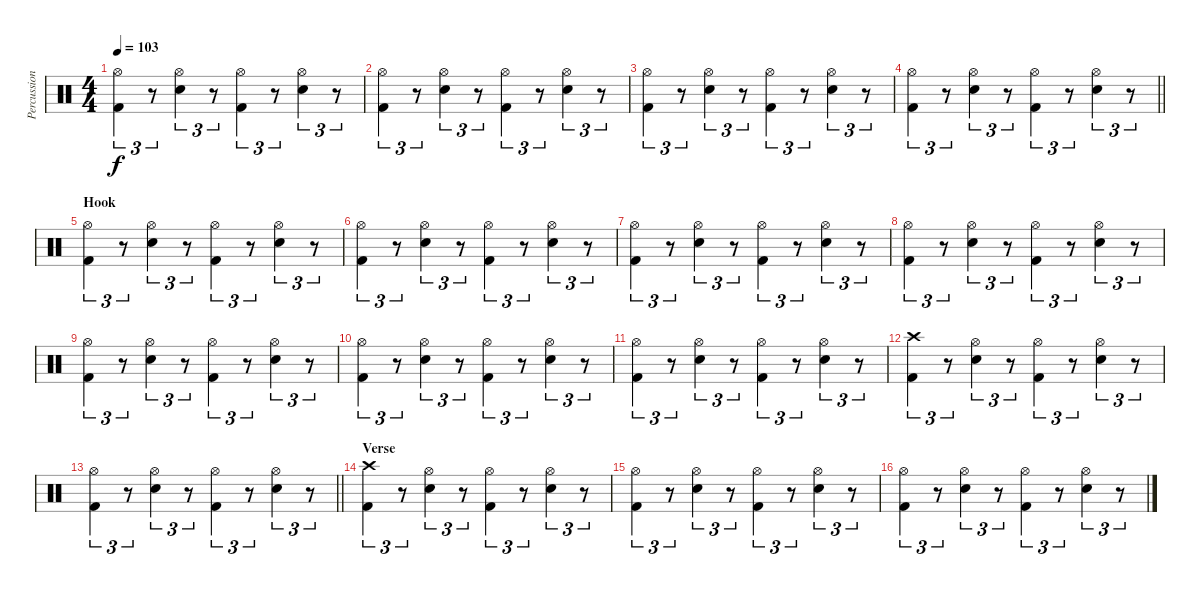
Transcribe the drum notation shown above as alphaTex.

\track ("Percussion" "Percussion") {instrument percussion}
\staff {score}
\articulation defaults
\ts (4 4)
\tempo 103
\clef neutral
\ks c
("Hi-Hat (open)" "Kick (hit) 2").4{tu (3 2) dy f} r.8{tu (3 2)} ("Hi-Hat (open)" "Electric Snare (hit)").4{tu (3 2)} r.8{tu (3 2)} ("Hi-Hat (open)" "Kick (hit) 2").4{tu (3 2)} r.8{tu (3 2)} ("Hi-Hat (open)" "Electric Snare (hit)").4{tu (3 2)} r.8{tu (3 2)} |
("Hi-Hat (open)" "Kick (hit) 2").4{tu (3 2)} r.8{tu (3 2)} ("Hi-Hat (open)" "Electric Snare (hit)").4{tu (3 2)} r.8{tu (3 2)} ("Hi-Hat (open)" "Kick (hit) 2").4{tu (3 2)} r.8{tu (3 2)} ("Hi-Hat (open)" "Electric Snare (hit)").4{tu (3 2)} r.8{tu (3 2)} |
("Hi-Hat (open)" "Kick (hit) 2").4{tu (3 2)} r.8{tu (3 2)} ("Hi-Hat (open)" "Electric Snare (hit)").4{tu (3 2)} r.8{tu (3 2)} ("Hi-Hat (open)" "Kick (hit) 2").4{tu (3 2)} r.8{tu (3 2)} ("Hi-Hat (open)" "Electric Snare (hit)").4{tu (3 2)} r.8{tu (3 2)} |
\barLineRight lightlight
("Hi-Hat (open)" "Kick (hit) 2").4{tu (3 2)} r.8{tu (3 2)} ("Hi-Hat (open)" "Electric Snare (hit)").4{tu (3 2)} r.8{tu (3 2)} ("Hi-Hat (open)" "Kick (hit) 2").4{tu (3 2)} r.8{tu (3 2)} ("Hi-Hat (open)" "Electric Snare (hit)").4{tu (3 2)} r.8{tu (3 2)} |
\section ("" "Hook")
("Hi-Hat (open)" "Kick (hit) 2").4{tu (3 2)} r.8{tu (3 2)} ("Hi-Hat (open)" "Electric Snare (hit)").4{tu (3 2)} r.8{tu (3 2)} ("Hi-Hat (open)" "Kick (hit) 2").4{tu (3 2)} r.8{tu (3 2)} ("Hi-Hat (open)" "Electric Snare (hit)").4{tu (3 2)} r.8{tu (3 2)} |
("Hi-Hat (open)" "Kick (hit) 2").4{tu (3 2)} r.8{tu (3 2)} ("Hi-Hat (open)" "Electric Snare (hit)").4{tu (3 2)} r.8{tu (3 2)} ("Hi-Hat (open)" "Kick (hit) 2").4{tu (3 2)} r.8{tu (3 2)} ("Hi-Hat (open)" "Electric Snare (hit)").4{tu (3 2)} r.8{tu (3 2)} |
("Hi-Hat (open)" "Kick (hit) 2").4{tu (3 2)} r.8{tu (3 2)} ("Hi-Hat (open)" "Electric Snare (hit)").4{tu (3 2)} r.8{tu (3 2)} ("Hi-Hat (open)" "Kick (hit) 2").4{tu (3 2)} r.8{tu (3 2)} ("Hi-Hat (open)" "Electric Snare (hit)").4{tu (3 2)} r.8{tu (3 2)} |
("Hi-Hat (open)" "Kick (hit) 2").4{tu (3 2)} r.8{tu (3 2)} ("Hi-Hat (open)" "Electric Snare (hit)").4{tu (3 2)} r.8{tu (3 2)} ("Hi-Hat (open)" "Kick (hit) 2").4{tu (3 2)} r.8{tu (3 2)} ("Hi-Hat (open)" "Electric Snare (hit)").4{tu (3 2)} r.8{tu (3 2)} |
("Hi-Hat (open)" "Kick (hit) 2").4{tu (3 2)} r.8{tu (3 2)} ("Hi-Hat (open)" "Electric Snare (hit)").4{tu (3 2)} r.8{tu (3 2)} ("Hi-Hat (open)" "Kick (hit) 2").4{tu (3 2)} r.8{tu (3 2)} ("Hi-Hat (open)" "Electric Snare (hit)").4{tu (3 2)} r.8{tu (3 2)} |
("Hi-Hat (open)" "Kick (hit) 2").4{tu (3 2)} r.8{tu (3 2)} ("Hi-Hat (open)" "Electric Snare (hit)").4{tu (3 2)} r.8{tu (3 2)} ("Hi-Hat (open)" "Kick (hit) 2").4{tu (3 2)} r.8{tu (3 2)} ("Hi-Hat (open)" "Electric Snare (hit)").4{tu (3 2)} r.8{tu (3 2)} |
("Hi-Hat (open)" "Kick (hit) 2").4{tu (3 2)} r.8{tu (3 2)} ("Hi-Hat (open)" "Electric Snare (hit)").4{tu (3 2)} r.8{tu (3 2)} ("Hi-Hat (open)" "Kick (hit) 2").4{tu (3 2)} r.8{tu (3 2)} ("Hi-Hat (open)" "Electric Snare (hit)").4{tu (3 2)} r.8{tu (3 2)} |
("Crash high (hit)" "Kick (hit) 2").4{tu (3 2)} r.8{tu (3 2)} ("Hi-Hat (open)" "Electric Snare (hit)").4{tu (3 2)} r.8{tu (3 2)} ("Hi-Hat (open)" "Kick (hit) 2").4{tu (3 2)} r.8{tu (3 2)} ("Hi-Hat (open)" "Electric Snare (hit)").4{tu (3 2)} r.8{tu (3 2)} |
\barLineRight lightlight
("Hi-Hat (open)" "Kick (hit) 2").4{tu (3 2)} r.8{tu (3 2)} ("Hi-Hat (open)" "Electric Snare (hit)").4{tu (3 2)} r.8{tu (3 2)} ("Hi-Hat (open)" "Kick (hit) 2").4{tu (3 2)} r.8{tu (3 2)} ("Hi-Hat (open)" "Electric Snare (hit)").4{tu (3 2)} r.8{tu (3 2)} |
\section ("" "Verse")
("Crash high (hit)" "Kick (hit) 2").4{tu (3 2)} r.8{tu (3 2)} ("Hi-Hat (open)" "Electric Snare (hit)").4{tu (3 2)} r.8{tu (3 2)} ("Hi-Hat (open)" "Kick (hit) 2").4{tu (3 2)} r.8{tu (3 2)} ("Hi-Hat (open)" "Electric Snare (hit)").4{tu (3 2)} r.8{tu (3 2)} |
("Hi-Hat (open)" "Kick (hit) 2").4{tu (3 2)} r.8{tu (3 2)} ("Hi-Hat (open)" "Electric Snare (hit)").4{tu (3 2)} r.8{tu (3 2)} ("Hi-Hat (open)" "Kick (hit) 2").4{tu (3 2)} r.8{tu (3 2)} ("Hi-Hat (open)" "Electric Snare (hit)").4{tu (3 2)} r.8{tu (3 2)} |
("Hi-Hat (open)" "Kick (hit) 2").4{tu (3 2)} r.8{tu (3 2)} ("Hi-Hat (open)" "Electric Snare (hit)").4{tu (3 2)} r.8{tu (3 2)} ("Hi-Hat (open)" "Kick (hit) 2").4{tu (3 2)} r.8{tu (3 2)} ("Hi-Hat (open)" "Electric Snare (hit)").4{tu (3 2)} r.8{tu (3 2)}
